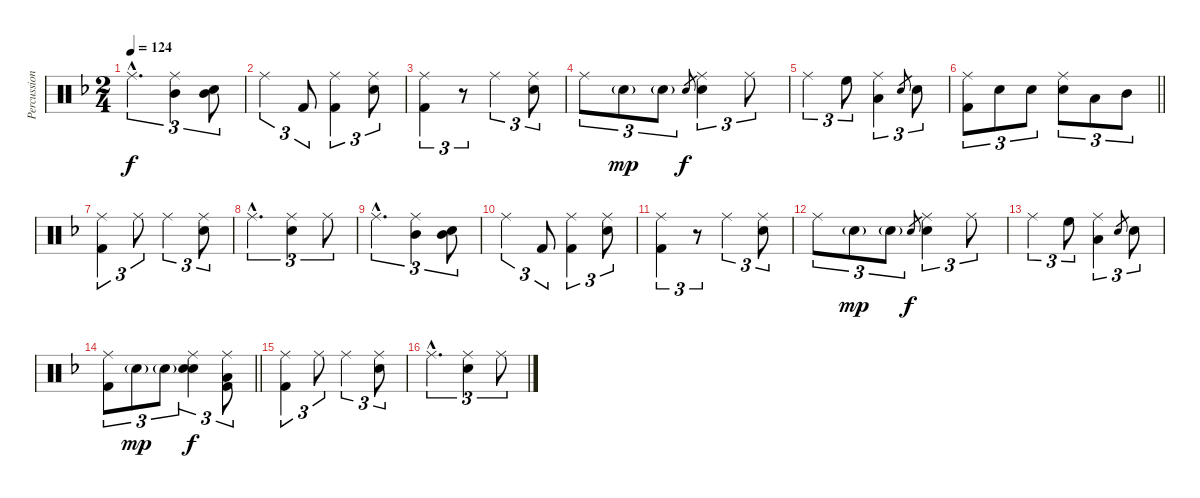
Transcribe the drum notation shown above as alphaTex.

\track ("Percussions" "Percussion") {instrument percussion}
\staff {score}
\articulation defaults
\ts (2 4)
\tempo 124
\clef neutral
\ks dminor "Ride (middle)"{hac}.4{d tu (3 2) dy f}
("Ride (middle)" "Mid Tom (hit)").4{tu (3 2)} ("Mid Tom (hit)" "Snare (hit) 2").8{tu (3 2)} |
"Ride (middle)".4{tu (3 2)} "Kick (hit) 2".8{tu (3 2)} ("Ride (middle)" "Kick (hit) 2").4{tu (3 2)} ("Ride (middle)" "Snare (hit) 2").8{tu (3 2)} |
("Ride (middle)" "Kick (hit) 2").4{tu (3 2)} r.8{tu (3 2)} "Ride (middle)".4{tu (3 2)} ("Ride (middle)" "Snare (hit) 2").8{tu (3 2)} |
"Ride (middle)".8{tu (3 2)} "Snare (hit) 2"{g}.8{tu (3 2) dy mp} "Snare (hit) 2"{g}.8{tu (3 2)} "Snare (hit) 2".8{gr dy f} ("Ride (middle)" "Snare (hit) 2").4{tu (3 2)} "Ride (middle)".8{tu (3 2)} |
"Ride (middle)".4{tu (3 2)} "High Floor Tom (hit)".8{tu (3 2)} ("Ride (middle)" "Low Tom (hit)").4{tu (3 2)} "Snare (hit) 2".8{gr} "Snare (hit) 2".8{tu (3 2)} |
\barLineRight lightlight
("Ride (middle)" "Kick (hit) 2").8{tu (3 2)} "Snare (hit) 2".8{tu (3 2)} "Snare (hit) 2".8{tu (3 2)} ("Ride (middle)" "Snare (hit) 2").8{tu (3 2)} "Low Tom (hit)".8{tu (3 2)} "Mid Tom (hit)".8{tu (3 2)} |
("Ride (middle)" "Kick (hit) 2").4{tu (3 2) volume 13} "Ride (middle)".8{tu (3 2)} "Ride (middle)".4{tu (3 2)} ("Ride (middle)" "Snare (hit) 2").8{tu (3 2)} |
"Ride (middle)"{hac}.4{d tu (3 2)} ("Ride (middle)" "Snare (hit) 2").4{tu (3 2)} "Ride (middle)".8{tu (3 2)} |
"Ride (middle)"{hac}.4{d tu (3 2)} ("Ride (middle)" "Mid Tom (hit)").4{tu (3 2)} ("Mid Tom (hit)" "Snare (hit) 2").8{tu (3 2)} |
"Ride (middle)".4{tu (3 2)} "Kick (hit) 2".8{tu (3 2)} ("Ride (middle)" "Kick (hit) 2").4{tu (3 2)} ("Ride (middle)" "Snare (hit) 2").8{tu (3 2)} |
("Ride (middle)" "Kick (hit) 2").4{tu (3 2)} r.8{tu (3 2)} "Ride (middle)".4{tu (3 2)} ("Ride (middle)" "Snare (hit) 2").8{tu (3 2)} |
"Ride (middle)".8{tu (3 2)} "Snare (hit) 2"{g}.8{tu (3 2) dy mp} "Snare (hit) 2"{g}.8{tu (3 2)} "Snare (hit) 2".8{gr dy f} ("Ride (middle)" "Snare (hit) 2").4{tu (3 2)} "Ride (middle)".8{tu (3 2)} |
"Ride (middle)".4{tu (3 2)} "High Floor Tom (hit)".8{tu (3 2)} ("Ride (middle)" "Low Tom (hit)").4{tu (3 2)} "Snare (hit) 2".8{gr} "Snare (hit) 2".8{tu (3 2)} |
\barLineRight lightlight
("Ride (middle)" "Kick (hit) 2").8{tu (3 2)} "Snare (hit) 2"{g}.8{tu (3 2) dy mp} "Snare (hit) 2"{g}.8{tu (3 2)} ("Ride (middle)" "Snare (hit) 2" "Electric Snare (hit)").4{tu (3 2) dy f} ("Ride (middle)" "Low Tom (hit)" "Kick (hit) 2").8{tu (3 2)} |
("Ride (middle)" "Kick (hit) 2").4{tu (3 2)} "Ride (middle)".8{tu (3 2)} "Ride (middle)".4{tu (3 2)} ("Ride (middle)" "Snare (hit) 2").8{tu (3 2)} |
"Ride (middle)"{hac}.4{d tu (3 2)} ("Ride (middle)" "Snare (hit) 2").4{tu (3 2)} "Ride (middle)".8{tu (3 2)}
